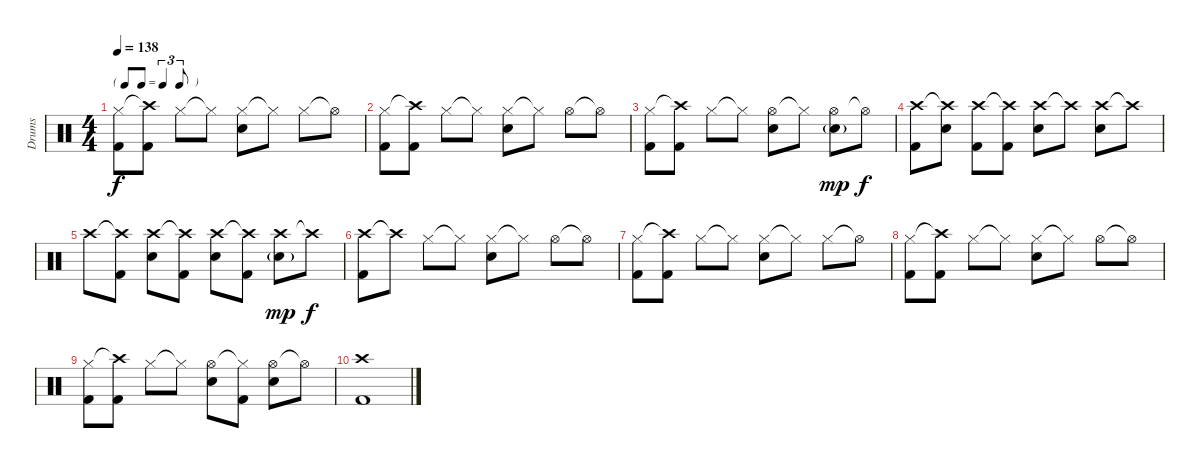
\track ("Drums" "Drums") {instrument percussion}
\staff {score}
\articulation defaults
\ts (4 4)
\tf triplet8th
\tempo 138
\clef neutral
\ks c
("Hi-Hat (closed)" "Kick (hit) 2").8{dy f} ("Crash high (hit)"{t} "Kick (hit) 2").8 "Hi-Hat (closed)".8 "Hi-Hat (closed)"{t}.8 ("Hi-Hat (closed)" "Electric Snare (hit)").8 "Hi-Hat (closed)"{t}.8 "Hi-Hat (closed)".8 "Hi-Hat (open)"{t}.8 |
("Hi-Hat (closed)" "Kick (hit) 2").8 ("Crash high (hit)"{t} "Kick (hit) 2").8 "Hi-Hat (closed)".8 "Hi-Hat (closed)"{t}.8 ("Hi-Hat (closed)" "Electric Snare (hit)").8 "Hi-Hat (closed)"{t}.8 "Hi-Hat (open)".8 "Hi-Hat (open)"{t}.8 |
("Hi-Hat (closed)" "Kick (hit) 2").8 ("Crash high (hit)"{t} "Kick (hit) 2").8 "Hi-Hat (closed)".8 "Hi-Hat (closed)"{t}.8 ("Hi-Hat (open)" "Electric Snare (hit)").8 "Hi-Hat (closed)"{t}.8 ("Hi-Hat (open)" "Electric Snare (hit)"{g}).8{dy mp} "Hi-Hat (open)"{t}.8{dy f} |
("Crash high (hit)" "Kick (hit) 2").8 ("Crash high (hit)"{t} "Electric Snare (hit)").8 ("Crash high (hit)" "Kick (hit) 2").8 ("Crash high (hit)"{t} "Kick (hit) 2").8 ("Crash high (hit)" "Electric Snare (hit)").8 "Crash high (hit)"{t}.8 ("Crash high (hit)" "Electric Snare (hit)").8 "Crash high (hit)"{t}.8 |
"Crash high (hit)".8 ("Crash high (hit)"{t} "Kick (hit) 2").8 ("Crash high (hit)" "Electric Snare (hit)").8 ("Crash high (hit)"{t} "Kick (hit) 2").8 ("Crash high (hit)" "Electric Snare (hit)").8 ("Crash high (hit)"{t} "Kick (hit) 2").8 ("Crash high (hit)" "Electric Snare (hit)"{g}).8{dy mp} "Crash high (hit)"{t}.8{dy f} |
("Crash high (hit)" "Kick (hit) 2").8 "Crash high (hit)"{t}.8 "Hi-Hat (closed)".8 "Hi-Hat (closed)"{t}.8 ("Hi-Hat (closed)" "Electric Snare (hit)").8 "Hi-Hat (closed)"{t}.8 "Hi-Hat (open)".8 "Hi-Hat (open)"{t}.8 |
("Hi-Hat (closed)" "Kick (hit) 2").8 ("Crash high (hit)"{t} "Kick (hit) 2").8 "Hi-Hat (closed)".8 "Hi-Hat (closed)"{t}.8 ("Hi-Hat (closed)" "Electric Snare (hit)").8 "Hi-Hat (closed)"{t}.8 "Hi-Hat (closed)".8 "Hi-Hat (open)"{t}.8 |
("Hi-Hat (closed)" "Kick (hit) 2").8 ("Crash high (hit)"{t} "Kick (hit) 2").8 "Hi-Hat (closed)".8 "Hi-Hat (closed)"{t}.8 ("Hi-Hat (closed)" "Electric Snare (hit)").8 "Hi-Hat (closed)"{t}.8 "Hi-Hat (open)".8 "Hi-Hat (open)"{t}.8 |
("Hi-Hat (closed)" "Kick (hit) 2").8 ("Crash high (hit)"{t} "Kick (hit) 2").8 "Hi-Hat (closed)".8 "Hi-Hat (closed)"{t}.8 ("Hi-Hat (open)" "Electric Snare (hit)").8 ("Hi-Hat (closed)"{t} "Kick (hit) 2").8 ("Hi-Hat (open)" "Electric Snare (hit)").8 "Hi-Hat (open)"{t}.8 |
("Crash high (hit)" "Kick (hit) 2").1
